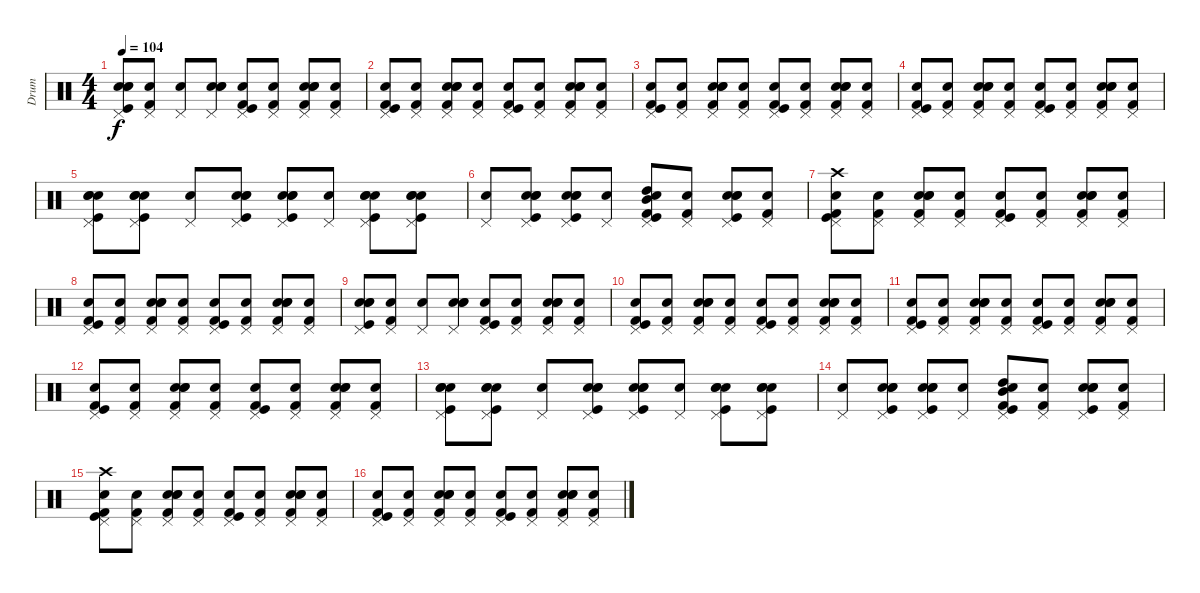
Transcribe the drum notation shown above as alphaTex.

\track ("Drum" "Drum") {instrument percussion}
\staff {score}
\articulation defaults
\ts (4 4)
\tempo 104
\clef neutral
\ks c
("Snare (hit)" "Kick (hit)" "Pedal Hi-Hat (hit)" "Electric Snare (hit)" "Snare (hit) 2").8{dy f} ("Snare (hit)" "Kick (hit) 2" "Pedal Hi-Hat (hit)").8 ("Snare (hit)" "Pedal Hi-Hat (hit)").8 ("Snare (hit)" "Pedal Hi-Hat (hit)" "Electric Snare (hit)" "Snare (hit) 2").8 ("Snare (hit)" "Pedal Hi-Hat (hit)" "Kick (hit)" "Kick (hit) 2").8 ("Snare (hit)" "Pedal Hi-Hat (hit)" "Kick (hit) 2").8 ("Snare (hit)" "Kick (hit) 2" "Snare (hit) 2" "Pedal Hi-Hat (hit)" "Electric Snare (hit)").8 ("Snare (hit)" "Kick (hit) 2" "Pedal Hi-Hat (hit)").8 |
("Snare (hit)" "Kick (hit) 2" "Pedal Hi-Hat (hit)" "Kick (hit)").8 ("Snare (hit)" "Pedal Hi-Hat (hit)" "Kick (hit) 2").8 ("Snare (hit)" "Kick (hit) 2" "Electric Snare (hit)" "Snare (hit) 2" "Pedal Hi-Hat (hit)").8 ("Snare (hit)" "Pedal Hi-Hat (hit)" "Kick (hit) 2").8 ("Snare (hit)" "Kick (hit) 2" "Pedal Hi-Hat (hit)" "Kick (hit)").8 ("Snare (hit)" "Pedal Hi-Hat (hit)" "Kick (hit) 2").8 ("Snare (hit)" "Kick (hit) 2" "Snare (hit) 2" "Electric Snare (hit)" "Pedal Hi-Hat (hit)").8 ("Snare (hit)" "Pedal Hi-Hat (hit)" "Kick (hit) 2").8 |
("Snare (hit)" "Kick (hit) 2" "Pedal Hi-Hat (hit)" "Kick (hit)").8 ("Snare (hit)" "Pedal Hi-Hat (hit)" "Kick (hit) 2").8 ("Snare (hit)" "Kick (hit) 2" "Electric Snare (hit)" "Snare (hit) 2" "Pedal Hi-Hat (hit)").8 ("Snare (hit)" "Pedal Hi-Hat (hit)" "Kick (hit) 2").8 ("Snare (hit)" "Kick (hit)" "Pedal Hi-Hat (hit)" "Kick (hit) 2").8 ("Snare (hit)" "Pedal Hi-Hat (hit)" "Kick (hit) 2").8 ("Snare (hit)" "Kick (hit) 2" "Snare (hit) 2" "Electric Snare (hit)" "Pedal Hi-Hat (hit)").8 ("Snare (hit)" "Pedal Hi-Hat (hit)" "Kick (hit) 2").8 |
("Snare (hit)" "Kick (hit)" "Pedal Hi-Hat (hit)" "Kick (hit) 2").8 ("Snare (hit)" "Pedal Hi-Hat (hit)" "Kick (hit) 2").8 ("Snare (hit)" "Kick (hit) 2" "Electric Snare (hit)" "Snare (hit) 2" "Pedal Hi-Hat (hit)").8 ("Snare (hit)" "Pedal Hi-Hat (hit)" "Kick (hit) 2").8 ("Snare (hit)" "Kick (hit)" "Pedal Hi-Hat (hit)" "Kick (hit) 2").8 ("Snare (hit)" "Pedal Hi-Hat (hit)" "Kick (hit) 2").8 ("Snare (hit)" "Kick (hit) 2" "Snare (hit) 2" "Electric Snare (hit)" "Pedal Hi-Hat (hit)").8 ("Snare (hit)" "Pedal Hi-Hat (hit)" "Kick (hit) 2").8 |
("Snare (hit)" "Pedal Hi-Hat (hit)" "Snare (hit) 2" "Kick (hit)" "Electric Snare (hit)").8 ("Snare (hit)" "Kick (hit)" "Pedal Hi-Hat (hit)" "Snare (hit) 2" "Electric Snare (hit)").8 ("Snare (hit)" "Pedal Hi-Hat (hit)").8 ("Snare (hit)" "Snare (hit) 2" "Pedal Hi-Hat (hit)" "Kick (hit)" "Electric Snare (hit)").8 ("Snare (hit)" "Kick (hit)" "Pedal Hi-Hat (hit)" "Snare (hit) 2" "Electric Snare (hit)").8 ("Snare (hit)" "Pedal Hi-Hat (hit)").8 ("Snare (hit)" "Snare (hit) 2" "Kick (hit)" "Pedal Hi-Hat (hit)" "Electric Snare (hit)").8 ("Snare (hit)" "Pedal Hi-Hat (hit)" "Snare (hit) 2" "Kick (hit)" "Electric Snare (hit)").8 |
("Snare (hit)" "Pedal Hi-Hat (hit)").8 ("Snare (hit)" "Pedal Hi-Hat (hit)" "Kick (hit)" "Snare (hit) 2" "Electric Snare (hit)").8 ("Snare (hit)" "Snare (hit) 2" "Kick (hit)" "Pedal Hi-Hat (hit)" "Electric Snare (hit)").8 ("Snare (hit)" "Pedal Hi-Hat (hit)").8 ("Snare (hit)" "Pedal Hi-Hat (hit)" "Kick (hit)" "Kick (hit) 2" "High Tom (hit)" "Mid Tom (hit)").8 ("Snare (hit)" "Pedal Hi-Hat (hit)" "Kick (hit) 2").8 ("Snare (hit)" "Snare (hit) 2" "Kick (hit)" "Pedal Hi-Hat (hit)" "Electric Snare (hit)").8 ("Snare (hit)" "Pedal Hi-Hat (hit)" "Kick (hit) 2").8 |
("Snare (hit)" "Pedal Hi-Hat (hit)" "Kick (hit) 2" "Kick (hit)" "Crash high (hit)").8 ("Snare (hit)" "Pedal Hi-Hat (hit)" "Kick (hit) 2").8 ("Snare (hit)" "Pedal Hi-Hat (hit)" "Snare (hit) 2" "Electric Snare (hit)" "Kick (hit) 2").8 ("Snare (hit)" "Pedal Hi-Hat (hit)" "Kick (hit) 2").8 ("Snare (hit)" "Pedal Hi-Hat (hit)" "Kick (hit) 2" "Kick (hit)").8 ("Snare (hit)" "Pedal Hi-Hat (hit)" "Kick (hit) 2").8 ("Snare (hit)" "Pedal Hi-Hat (hit)" "Electric Snare (hit)" "Snare (hit) 2" "Kick (hit) 2").8 ("Snare (hit)" "Pedal Hi-Hat (hit)" "Kick (hit) 2").8 |
("Snare (hit)" "Kick (hit)" "Kick (hit) 2" "Pedal Hi-Hat (hit)").8 ("Snare (hit)" "Kick (hit) 2" "Pedal Hi-Hat (hit)").8 ("Snare (hit)" "Kick (hit) 2" "Electric Snare (hit)" "Snare (hit) 2" "Pedal Hi-Hat (hit)").8 ("Snare (hit)" "Kick (hit) 2" "Pedal Hi-Hat (hit)").8 ("Snare (hit)" "Kick (hit)" "Kick (hit) 2" "Pedal Hi-Hat (hit)").8 ("Snare (hit)" "Kick (hit) 2" "Pedal Hi-Hat (hit)").8 ("Snare (hit)" "Kick (hit) 2" "Snare (hit) 2" "Electric Snare (hit)" "Pedal Hi-Hat (hit)").8 ("Snare (hit)" "Kick (hit) 2" "Pedal Hi-Hat (hit)").8 |
("Snare (hit)" "Electric Snare (hit)" "Snare (hit) 2" "Kick (hit)" "Pedal Hi-Hat (hit)").8 ("Snare (hit)" "Pedal Hi-Hat (hit)" "Kick (hit) 2").8 ("Snare (hit)" "Pedal Hi-Hat (hit)").8 ("Snare (hit)" "Snare (hit) 2" "Electric Snare (hit)" "Pedal Hi-Hat (hit)").8 ("Snare (hit)" "Pedal Hi-Hat (hit)" "Kick (hit) 2" "Kick (hit)").8 ("Snare (hit)" "Kick (hit) 2" "Pedal Hi-Hat (hit)").8 ("Snare (hit)" "Pedal Hi-Hat (hit)" "Electric Snare (hit)" "Kick (hit) 2" "Snare (hit) 2").8 ("Snare (hit)" "Pedal Hi-Hat (hit)" "Kick (hit) 2").8 |
("Snare (hit)" "Kick (hit)" "Pedal Hi-Hat (hit)" "Kick (hit) 2").8 ("Snare (hit)" "Kick (hit) 2" "Pedal Hi-Hat (hit)").8 ("Snare (hit)" "Pedal Hi-Hat (hit)" "Snare (hit) 2" "Electric Snare (hit)" "Kick (hit) 2").8 ("Snare (hit)" "Kick (hit) 2" "Pedal Hi-Hat (hit)").8 ("Snare (hit)" "Kick (hit)" "Pedal Hi-Hat (hit)" "Kick (hit) 2").8 ("Snare (hit)" "Kick (hit) 2" "Pedal Hi-Hat (hit)").8 ("Snare (hit)" "Pedal Hi-Hat (hit)" "Electric Snare (hit)" "Snare (hit) 2" "Kick (hit) 2").8 ("Snare (hit)" "Kick (hit) 2" "Pedal Hi-Hat (hit)").8 |
("Snare (hit)" "Kick (hit)" "Pedal Hi-Hat (hit)" "Kick (hit) 2").8 ("Snare (hit)" "Kick (hit) 2" "Pedal Hi-Hat (hit)").8 ("Snare (hit)" "Pedal Hi-Hat (hit)" "Snare (hit) 2" "Electric Snare (hit)" "Kick (hit) 2").8 ("Snare (hit)" "Kick (hit) 2" "Pedal Hi-Hat (hit)").8 ("Snare (hit)" "Kick (hit) 2" "Pedal Hi-Hat (hit)" "Kick (hit)").8 ("Snare (hit)" "Kick (hit) 2" "Pedal Hi-Hat (hit)").8 ("Snare (hit)" "Pedal Hi-Hat (hit)" "Electric Snare (hit)" "Snare (hit) 2" "Kick (hit) 2").8 ("Snare (hit)" "Kick (hit) 2" "Pedal Hi-Hat (hit)").8 |
("Snare (hit)" "Pedal Hi-Hat (hit)" "Kick (hit)" "Kick (hit) 2").8 ("Snare (hit)" "Kick (hit) 2" "Pedal Hi-Hat (hit)").8 ("Snare (hit)" "Electric Snare (hit)" "Pedal Hi-Hat (hit)" "Kick (hit) 2" "Snare (hit) 2").8 ("Snare (hit)" "Pedal Hi-Hat (hit)" "Kick (hit) 2").8 ("Snare (hit)" "Kick (hit) 2" "Kick (hit)" "Pedal Hi-Hat (hit)").8 ("Snare (hit)" "Pedal Hi-Hat (hit)" "Kick (hit) 2").8 ("Snare (hit)" "Snare (hit) 2" "Pedal Hi-Hat (hit)" "Electric Snare (hit)" "Kick (hit) 2").8 ("Snare (hit)" "Kick (hit) 2" "Pedal Hi-Hat (hit)").8 |
("Snare (hit)" "Electric Snare (hit)" "Kick (hit)" "Snare (hit) 2" "Pedal Hi-Hat (hit)").8 ("Snare (hit)" "Electric Snare (hit)" "Snare (hit) 2" "Pedal Hi-Hat (hit)" "Kick (hit)").8 ("Snare (hit)" "Pedal Hi-Hat (hit)").8 ("Snare (hit)" "Electric Snare (hit)" "Kick (hit)" "Pedal Hi-Hat (hit)" "Snare (hit) 2").8 ("Snare (hit)" "Electric Snare (hit)" "Snare (hit) 2" "Pedal Hi-Hat (hit)" "Kick (hit)").8 ("Snare (hit)" "Pedal Hi-Hat (hit)").8 ("Snare (hit)" "Electric Snare (hit)" "Pedal Hi-Hat (hit)" "Kick (hit)" "Snare (hit) 2").8 ("Snare (hit)" "Electric Snare (hit)" "Kick (hit)" "Snare (hit) 2" "Pedal Hi-Hat (hit)").8 |
("Snare (hit)" "Pedal Hi-Hat (hit)").8 ("Snare (hit)" "Electric Snare (hit)" "Snare (hit) 2" "Kick (hit)" "Pedal Hi-Hat (hit)").8 ("Snare (hit)" "Electric Snare (hit)" "Pedal Hi-Hat (hit)" "Kick (hit)" "Snare (hit) 2").8 ("Snare (hit)" "Pedal Hi-Hat (hit)").8 ("Snare (hit)" "Mid Tom (hit)" "High Tom (hit)" "Kick (hit) 2" "Kick (hit)" "Pedal Hi-Hat (hit)").8 ("Snare (hit)" "Kick (hit) 2" "Pedal Hi-Hat (hit)").8 ("Snare (hit)" "Electric Snare (hit)" "Pedal Hi-Hat (hit)" "Kick (hit)" "Snare (hit) 2").8 ("Snare (hit)" "Kick (hit) 2" "Pedal Hi-Hat (hit)").8 |
("Snare (hit)" "Kick (hit) 2" "Pedal Hi-Hat (hit)" "Crash high (hit)" "Kick (hit)").8 ("Snare (hit)" "Pedal Hi-Hat (hit)" "Kick (hit) 2").8 ("Snare (hit)" "Kick (hit) 2" "Electric Snare (hit)" "Snare (hit) 2" "Pedal Hi-Hat (hit)").8 ("Snare (hit)" "Pedal Hi-Hat (hit)" "Kick (hit) 2").8 ("Snare (hit)" "Kick (hit) 2" "Pedal Hi-Hat (hit)" "Kick (hit)").8 ("Snare (hit)" "Pedal Hi-Hat (hit)" "Kick (hit) 2").8 ("Snare (hit)" "Kick (hit) 2" "Snare (hit) 2" "Electric Snare (hit)" "Pedal Hi-Hat (hit)").8 ("Snare (hit)" "Pedal Hi-Hat (hit)" "Kick (hit) 2").8 |
("Snare (hit)" "Pedal Hi-Hat (hit)" "Kick (hit) 2" "Kick (hit)").8 ("Snare (hit)" "Pedal Hi-Hat (hit)" "Kick (hit) 2").8 ("Snare (hit)" "Pedal Hi-Hat (hit)" "Snare (hit) 2" "Electric Snare (hit)" "Kick (hit) 2").8 ("Snare (hit)" "Pedal Hi-Hat (hit)" "Kick (hit) 2").8 ("Snare (hit)" "Pedal Hi-Hat (hit)" "Kick (hit) 2" "Kick (hit)").8 ("Snare (hit)" "Pedal Hi-Hat (hit)" "Kick (hit) 2").8 ("Snare (hit)" "Pedal Hi-Hat (hit)" "Electric Snare (hit)" "Snare (hit) 2" "Kick (hit) 2").8 ("Snare (hit)" "Pedal Hi-Hat (hit)" "Kick (hit) 2").8
